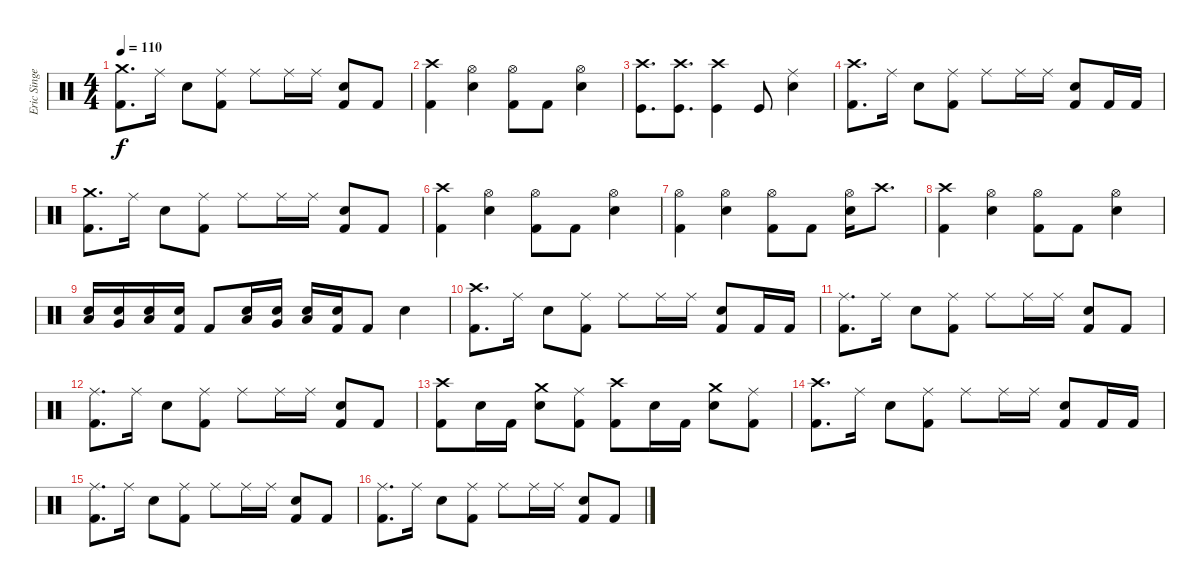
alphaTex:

\track ("Eric Singer" "Eric Singe") {instrument percussion}
\staff {score}
\articulation defaults
\ts (4 4)
\tempo 110
\clef neutral
\ks c
("Crash medium (hit)" "Kick (hit) 2").8{d dy f} "Ride (middle)".16 "Electric Snare (hit)".8 ("Ride (middle)" "Kick (hit) 2").8 "Ride (middle)".8 "Ride (middle)".16 "Ride (middle)".16 ("Electric Snare (hit)" "Kick (hit) 2").8 "Kick (hit) 2".8 |
("Crash high (hit)" "Kick (hit) 2").4 ("Hi-Hat (open)" "Snare (hit) 2").4 ("Hi-Hat (open)" "Kick (hit) 2").8 "Kick (hit) 2".8 ("Hi-Hat (open)" "Snare (hit) 2").4 |
("Crash high (hit)" "Kick (hit)").8{d} ("Crash high (hit)" "Kick (hit)").8{d} ("Crash high (hit)" "Kick (hit)").4 "Kick (hit)".8 ("Ride (middle)" "Snare (hit) 2").4 |
("Crash high (hit)" "Kick (hit) 2").8{d} "Ride (middle)".16 "Electric Snare (hit)".8 ("Ride (middle)" "Kick (hit) 2").8 "Ride (middle)".8 "Ride (middle)".16 "Ride (middle)".16 ("Electric Snare (hit)" "Kick (hit) 2").8 "Kick (hit) 2".16 "Kick (hit) 2".16 |
("Crash medium (hit)" "Kick (hit) 2").8{d} "Ride (middle)".16 "Electric Snare (hit)".8 ("Ride (middle)" "Kick (hit) 2").8 "Ride (middle)".8 "Ride (middle)".16 "Ride (middle)".16 ("Electric Snare (hit)" "Kick (hit) 2").8 "Kick (hit) 2".8 |
("Kick (hit) 2" "Crash high (hit)").4 ("Electric Snare (hit)" "Hi-Hat (open)").4 ("Kick (hit) 2" "Hi-Hat (open)").8 "Kick (hit) 2".8 ("Electric Snare (hit)" "Hi-Hat (open)").4 |
("Kick (hit) 2" "Hi-Hat (open)").4 ("Electric Snare (hit)" "Hi-Hat (open)").4 ("Kick (hit) 2" "Hi-Hat (open)").8 "Kick (hit) 2".8 ("Electric Snare (hit)" "Hi-Hat (open)").16 "Crash high (hit)".8{d} |
("Kick (hit) 2" "Crash high (hit)").4 ("Electric Snare (hit)" "Hi-Hat (open)").4 ("Kick (hit) 2" "Hi-Hat (open)").8 "Kick (hit) 2".8 ("Electric Snare (hit)" "Hi-Hat (open)").4 |
("Low Tom (hit)" "Electric Snare (hit)").16 ("Very Low Tom (hit)" "Electric Snare (hit)").16 ("Low Floor Tom (hit)" "Electric Snare (hit)").16 ("Kick (hit) 2" "Electric Snare (hit)").16 "Kick (hit) 2".8 ("Low Tom (hit)" "Electric Snare (hit)").16 ("Very Low Tom (hit)" "Electric Snare (hit)").16 ("Low Floor Tom (hit)" "Electric Snare (hit)").16 ("Kick (hit) 2" "Electric Snare (hit)").16 "Kick (hit) 2".8 "Electric Snare (hit)".4 |
("Crash high (hit)" "Kick (hit) 2").8{d} "Ride (middle)".16 "Electric Snare (hit)".8 ("Ride (middle)" "Kick (hit) 2").8 "Ride (middle)".8 "Ride (middle)".16 "Ride (middle)".16 ("Electric Snare (hit)" "Kick (hit) 2").8 "Kick (hit) 2".16 "Kick (hit) 2".16 |
("Ride (middle)" "Kick (hit) 2").8{d} "Ride (middle)".16 "Electric Snare (hit)".8 ("Ride (middle)" "Kick (hit) 2").8 "Ride (middle)".8 "Ride (middle)".16 "Ride (middle)".16 ("Electric Snare (hit)" "Kick (hit) 2").8 "Kick (hit) 2".8 |
("Ride (middle)" "Kick (hit) 2").8{d} "Ride (middle)".16 "Electric Snare (hit)".8 ("Ride (middle)" "Kick (hit) 2").8 "Ride (middle)".8 "Ride (middle)".16 "Ride (middle)".16 ("Electric Snare (hit)" "Kick (hit) 2").8 "Kick (hit) 2".8 |
("Crash high (hit)" "Kick (hit) 2").8 "Snare (hit) 2".16 "Kick (hit) 2".16 ("Crash medium (hit)" "Snare (hit) 2").8 ("Ride (middle)" "Kick (hit) 2").8 ("Crash high (hit)" "Kick (hit) 2").8 "Snare (hit) 2".16 "Kick (hit) 2".16 ("Crash medium (hit)" "Snare (hit) 2").8 ("Ride (middle)" "Kick (hit) 2").8 |
("Crash high (hit)" "Kick (hit) 2").8{d} "Ride (middle)".16 "Electric Snare (hit)".8 ("Ride (middle)" "Kick (hit) 2").8 "Ride (middle)".8 "Ride (middle)".16 "Ride (middle)".16 ("Electric Snare (hit)" "Kick (hit) 2").8 "Kick (hit) 2".16 "Kick (hit) 2".16 |
("Ride (middle)" "Kick (hit) 2").8{d} "Ride (middle)".16 "Electric Snare (hit)".8 ("Ride (middle)" "Kick (hit) 2").8 "Ride (middle)".8 "Ride (middle)".16 "Ride (middle)".16 ("Electric Snare (hit)" "Kick (hit) 2").8 "Kick (hit) 2".8 |
("Ride (middle)" "Kick (hit) 2").8{d} "Ride (middle)".16 "Electric Snare (hit)".8 ("Ride (middle)" "Kick (hit) 2").8 "Ride (middle)".8 "Ride (middle)".16 "Ride (middle)".16 ("Electric Snare (hit)" "Kick (hit) 2").8 "Kick (hit) 2".8
